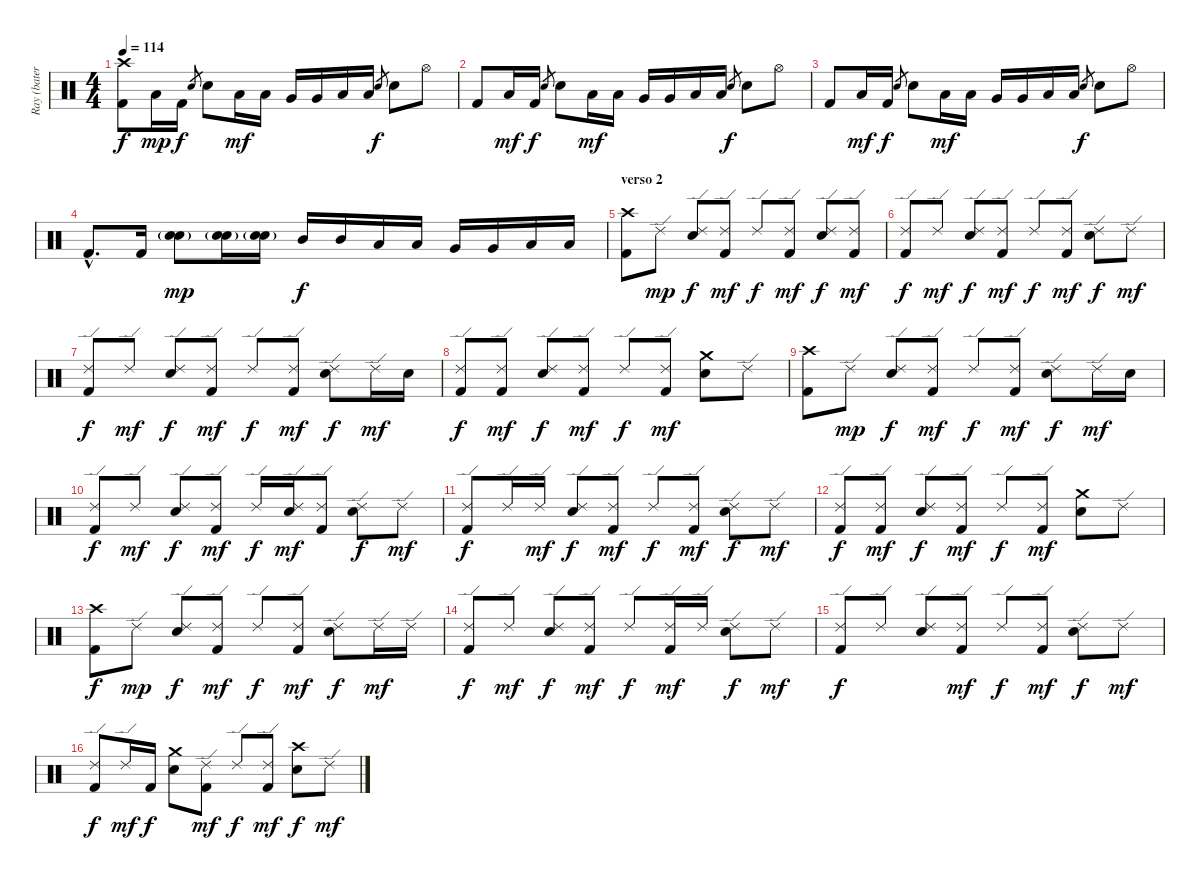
\track ("Ray (batería)" "Ray (bater") {instrument percussion}
\staff {score}
\articulation defaults
\ts (4 4)
\tempo 114
\clef neutral
\ks c
("Crash high (hit)" "Kick (hit) 2").8{dy f} "Low Floor Tom (hit)".16{dy mp} "Kick (hit) 2".16{dy f} "Snare (hit) 2".8{gr} "Snare (hit) 2".8 "Low Tom (hit)".16{dy mf} "Low Tom (hit)".16 "Very Low Tom (hit)".16 "Very Low Tom (hit)".16 "Low Floor Tom (hit)".16 "Low Floor Tom (hit)".16 "Snare (hit) 2".8{gr dy f} "Snare (hit) 2".8 "Hi-Hat (open)".8 |
"Kick (hit) 2".8 "Low Floor Tom (hit)".16{dy mf} "Kick (hit) 2".16{dy f} "Snare (hit) 2".8{gr} "Snare (hit) 2".8 "Low Tom (hit)".16{dy mf} "Low Tom (hit)".16 "Very Low Tom (hit)".16 "Very Low Tom (hit)".16 "Low Floor Tom (hit)".16 "Low Floor Tom (hit)".16 "Snare (hit) 2".8{gr dy f} "Snare (hit) 2".8 "Hi-Hat (open)".8 |
"Kick (hit) 2".8 "Low Floor Tom (hit)".16{dy mf} "Kick (hit) 2".16{dy f} "Snare (hit) 2".8{gr} "Snare (hit) 2".8 "Low Tom (hit)".16{dy mf} "Low Tom (hit)".16 "Very Low Tom (hit)".16 "Very Low Tom (hit)".16 "Low Floor Tom (hit)".16 "Low Floor Tom (hit)".16 "Snare (hit) 2".8{gr dy f} "Snare (hit) 2".8 "Hi-Hat (open)".8 |
"Kick (hit) 2"{hac}.8{d} "Kick (hit) 2".16 ("Snare (hit) 2" "Electric Snare (hit)"{g}).8{dy mp} ("Snare (hit) 2" "Electric Snare (hit)"{g}).16 ("Snare (hit) 2" "Electric Snare (hit)"{g}).16 "Mid Tom (hit)".16{dy f} "Mid Tom (hit)".16 "Low Tom (hit)".16 "Low Tom (hit)".16 "Very Low Tom (hit)".16 "Very Low Tom (hit)".16 "Low Floor Tom (hit)".16 "Low Floor Tom (hit)".16 |
\section ("" "verso 2")
("Crash high (hit)" "Kick (hit) 2").8 "Ride (edge) 2".8{dy mp} ("Ride (edge) 2" "Snare (hit) 2").8{dy f} ("Ride (edge) 2" "Kick (hit) 2").8{dy mf} "Ride (edge) 2".8{dy f} ("Ride (edge) 2" "Kick (hit) 2").8{dy mf} ("Ride (edge) 2" "Snare (hit) 2").8{dy f} ("Ride (edge) 2" "Kick (hit) 2").8{dy mf} |
("Ride (edge) 2" "Kick (hit) 2").8{dy f} "Ride (edge) 2".8{dy mf} ("Ride (edge) 2" "Snare (hit) 2").8{dy f} ("Ride (edge) 2" "Kick (hit) 2").8{dy mf} "Ride (edge) 2".8{dy f} ("Ride (edge) 2" "Kick (hit) 2").8{dy mf} ("Ride (edge) 2" "Snare (hit) 2").8{dy f} "Ride (edge) 2".8{dy mf} |
("Ride (edge) 2" "Kick (hit) 2").8{dy f} "Ride (edge) 2".8{dy mf} ("Ride (edge) 2" "Snare (hit) 2").8{dy f} ("Ride (edge) 2" "Kick (hit) 2").8{dy mf} "Ride (edge) 2".8{dy f} ("Ride (edge) 2" "Kick (hit) 2").8{dy mf} ("Ride (edge) 2" "Snare (hit) 2").8{dy f} "Ride (edge) 2".16{dy mf} "Snare (hit) 2".16 |
("Ride (edge) 2" "Kick (hit) 2").8{dy f} ("Ride (edge) 2" "Kick (hit) 2").8{dy mf} ("Ride (edge) 2" "Snare (hit) 2").8{dy f} ("Ride (edge) 2" "Kick (hit) 2").8{dy mf} "Ride (edge) 2".8{dy f} ("Ride (edge) 2" "Kick (hit) 2").8{dy mf} ("Crash medium (hit)" "Snare (hit) 2").8 "Ride (edge) 2".8 |
("Crash high (hit)" "Kick (hit) 2").8 "Ride (edge) 2".8{dy mp} ("Ride (edge) 2" "Snare (hit) 2").8{dy f} ("Ride (edge) 2" "Kick (hit) 2").8{dy mf} "Ride (edge) 2".8{dy f} ("Ride (edge) 2" "Kick (hit) 2").8{dy mf} ("Ride (edge) 2" "Snare (hit) 2").8{dy f} "Ride (edge) 2".16{dy mf} "Snare (hit) 2".16 |
("Ride (edge) 2" "Kick (hit) 2").8{dy f} "Ride (edge) 2".8{dy mf} ("Ride (edge) 2" "Snare (hit) 2").8{dy f} ("Ride (edge) 2" "Kick (hit) 2").8{dy mf} "Ride (edge) 2".16{dy f} ("Ride (edge) 2" "Snare (hit) 2").16{dy mf} ("Ride (edge) 2" "Kick (hit) 2").8 ("Ride (edge) 2" "Snare (hit) 2").8{dy f} "Ride (edge) 2".8{dy mf} |
("Ride (edge) 2" "Kick (hit) 2").8{dy f} "Ride (edge) 2".16 "Ride (edge) 2".16{dy mf} ("Ride (edge) 2" "Snare (hit) 2").8{dy f} ("Ride (edge) 2" "Kick (hit) 2").8{dy mf} "Ride (edge) 2".8{dy f} ("Ride (edge) 2" "Kick (hit) 2").8{dy mf} ("Ride (edge) 2" "Snare (hit) 2").8{dy f} "Ride (edge) 2".8{dy mf} |
("Ride (edge) 2" "Kick (hit) 2").8{dy f} ("Ride (edge) 2" "Kick (hit) 2").8{dy mf} ("Ride (edge) 2" "Snare (hit) 2").8{dy f} ("Ride (edge) 2" "Kick (hit) 2").8{dy mf} "Ride (edge) 2".8{dy f} ("Ride (edge) 2" "Kick (hit) 2").8{dy mf} ("Crash medium (hit)" "Snare (hit) 2").8 "Ride (edge) 2".8 |
("Crash high (hit)" "Kick (hit) 2").8{dy f} "Ride (edge) 2".8{dy mp} ("Ride (edge) 2" "Snare (hit) 2").8{dy f} ("Ride (edge) 2" "Kick (hit) 2").8{dy mf} "Ride (edge) 2".8{dy f} ("Ride (edge) 2" "Kick (hit) 2").8{dy mf} ("Ride (edge) 2" "Snare (hit) 2").8{dy f} "Ride (edge) 2".16{dy mf} "Ride (edge) 2".16 |
("Ride (edge) 2" "Kick (hit) 2").8{dy f} "Ride (edge) 2".8{dy mf} ("Ride (edge) 2" "Snare (hit) 2").8{dy f} ("Ride (edge) 2" "Kick (hit) 2").8{dy mf} "Ride (edge) 2".8{dy f} ("Ride (edge) 2" "Kick (hit) 2").16{dy mf} "Ride (edge) 2".16 ("Ride (edge) 2" "Snare (hit) 2").8{dy f} "Ride (edge) 2".8{dy mf} |
("Ride (edge) 2" "Kick (hit) 2").8{dy f} "Ride (edge) 2".8 ("Ride (edge) 2" "Snare (hit) 2").8 ("Ride (edge) 2" "Kick (hit) 2").8{dy mf} "Ride (edge) 2".8{dy f} ("Ride (edge) 2" "Kick (hit) 2").8{dy mf} ("Ride (edge) 2" "Snare (hit) 2").8{dy f} "Ride (edge) 2".8{dy mf} |
("Ride (edge) 2" "Kick (hit) 2").8{dy f} "Ride (edge) 2".16{dy mf} "Kick (hit) 2".16{dy f} ("Crash medium (hit)" "Snare (hit) 2").8 ("Ride (edge) 2" "Kick (hit) 2").8{dy mf} "Ride (edge) 2".8{dy f} ("Ride (edge) 2" "Kick (hit) 2").8{dy mf} ("Crash high (hit)" "Snare (hit) 2").8{dy f} "Ride (edge) 2".8{dy mf}
